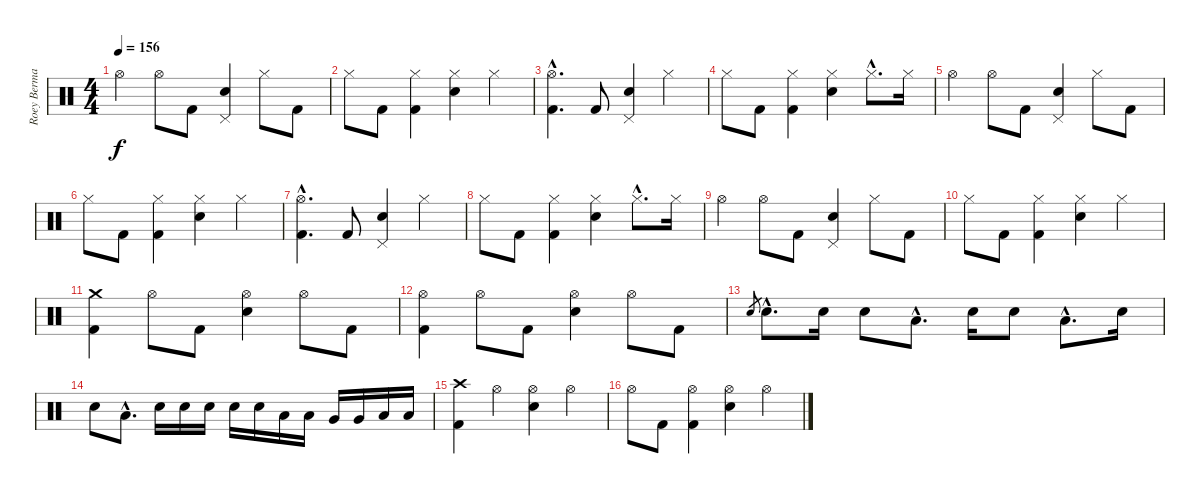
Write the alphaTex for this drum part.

\track ("Roey Berman" "Roey Berma") {instrument percussion}
\staff {score}
\articulation defaults
\ts (4 4)
\tempo 156
\clef neutral
\ks c "Hi-Hat (open)".4{dy f} "Hi-Hat (open)".8 "Kick (hit) 2".8
("Pedal Hi-Hat (hit)" "Electric Snare (hit)").4 "Hi-Hat (closed)".8 "Kick (hit) 2".8 |
"Hi-Hat (closed)".8 "Kick (hit) 2".8 ("Hi-Hat (closed)" "Kick (hit) 2").4 ("Hi-Hat (closed)" "Electric Snare (hit)").4 "Hi-Hat (closed)".4 |
("Hi-Hat (open)"{hac} "Kick (hit) 2"{hac}).4{d} "Kick (hit) 2".8 ("Pedal Hi-Hat (hit)" "Electric Snare (hit)").4 "Hi-Hat (closed)".4 |
"Hi-Hat (closed)".8 "Kick (hit) 2".8 ("Hi-Hat (closed)" "Kick (hit) 2").4 ("Hi-Hat (closed)" "Electric Snare (hit)").4 "Hi-Hat (closed)"{hac}.8{d} "Hi-Hat (closed)".16 |
"Hi-Hat (open)".4 "Hi-Hat (open)".8 "Kick (hit) 2".8 ("Pedal Hi-Hat (hit)" "Electric Snare (hit)").4 "Hi-Hat (closed)".8 "Kick (hit) 2".8 |
"Hi-Hat (closed)".8 "Kick (hit) 2".8 ("Hi-Hat (closed)" "Kick (hit) 2").4 ("Hi-Hat (closed)" "Electric Snare (hit)").4 "Hi-Hat (closed)".4 |
("Hi-Hat (open)"{hac} "Kick (hit) 2"{hac}).4{d} "Kick (hit) 2".8 ("Pedal Hi-Hat (hit)" "Electric Snare (hit)").4 "Hi-Hat (closed)".4 |
"Hi-Hat (closed)".8 "Kick (hit) 2".8 ("Hi-Hat (closed)" "Kick (hit) 2").4 ("Hi-Hat (closed)" "Electric Snare (hit)").4 "Hi-Hat (closed)"{hac}.8{d} "Hi-Hat (closed)".16 |
"Hi-Hat (open)".4 "Hi-Hat (open)".8 "Kick (hit) 2".8 ("Pedal Hi-Hat (hit)" "Electric Snare (hit)").4 "Hi-Hat (closed)".8 "Kick (hit) 2".8 |
"Hi-Hat (closed)".8 "Kick (hit) 2".8 ("Hi-Hat (closed)" "Kick (hit) 2").4 ("Hi-Hat (closed)" "Electric Snare (hit)").4 "Hi-Hat (closed)".4 |
\section ("" "")
("Crash medium (hit)" "Kick (hit) 2").4 "Hi-Hat (open)".8 "Kick (hit) 2".8 ("Hi-Hat (open)" "Electric Snare (hit)").4 "Hi-Hat (open)".8 "Kick (hit) 2".8 |
("Hi-Hat (open)" "Kick (hit) 2").4 "Hi-Hat (open)".8 "Kick (hit) 2".8 ("Hi-Hat (open)" "Electric Snare (hit)").4 "Hi-Hat (open)".8 "Kick (hit) 2".8 |
"Electric Snare (hit)".8{gr} "Electric Snare (hit)"{hac}.8{d} "Electric Snare (hit)".16 "Electric Snare (hit)".8 "Low Tom (hit)"{hac}.8{d} "Electric Snare (hit)".16 "Electric Snare (hit)".8 "Low Tom (hit)"{hac}.8{d} "Electric Snare (hit)".16 |
"Electric Snare (hit)".8 "Low Tom (hit)"{hac}.8{d} "Electric Snare (hit)".16 "Electric Snare (hit)".16 "Electric Snare (hit)".16 "Electric Snare (hit)".16 "Electric Snare (hit)".16 "Low Tom (hit)".16 "Low Tom (hit)".16 "Very Low Tom (hit)".16 "Very Low Tom (hit)".16 "Low Floor Tom (hit)".16 "Low Floor Tom (hit)".16 |
("Crash high (hit)" "Kick (hit) 2").4 "Hi-Hat (open)".4 ("Hi-Hat (open)" "Electric Snare (hit)").4 "Hi-Hat (open)".4 |
"Hi-Hat (open)".8 "Kick (hit) 2".8 ("Hi-Hat (open)" "Kick (hit) 2").4 ("Hi-Hat (open)" "Electric Snare (hit)").4 "Hi-Hat (open)".4
